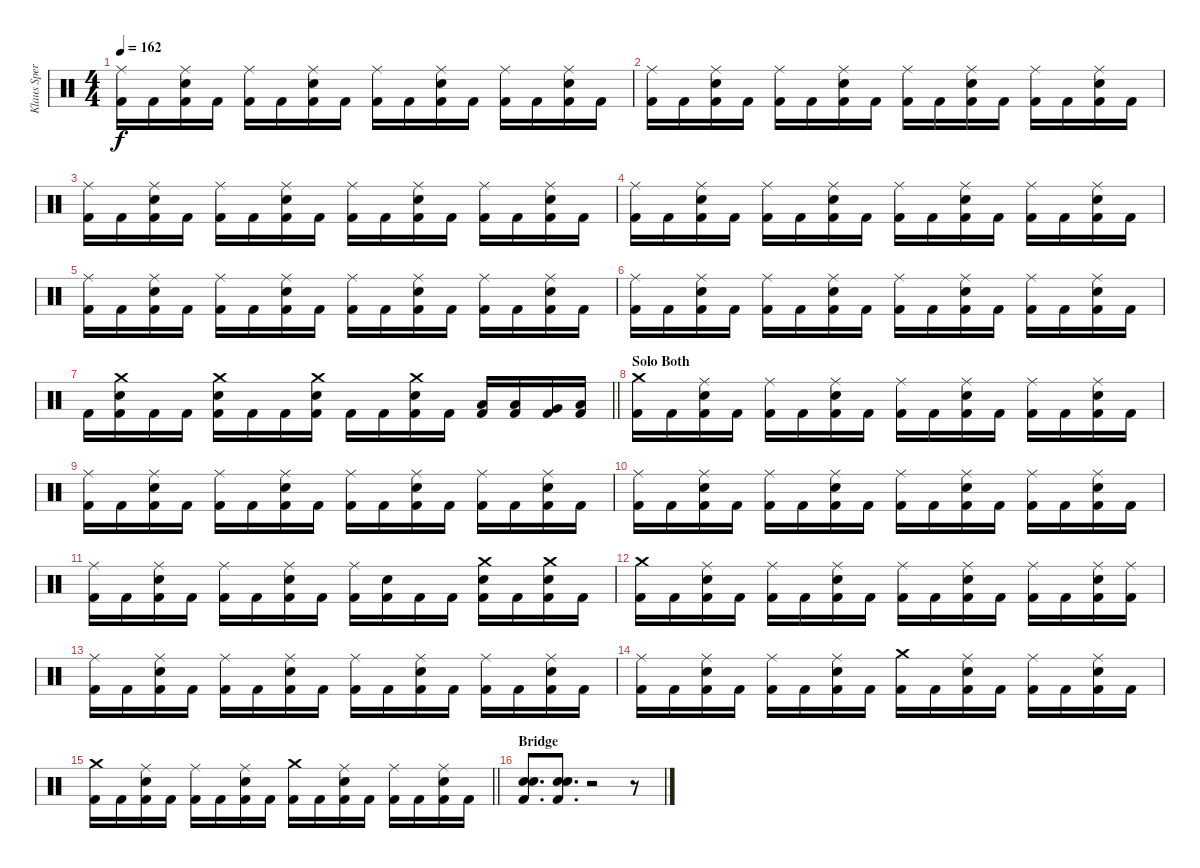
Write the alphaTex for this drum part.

\track ("Klaus Sperling" "Klaus Sper") {instrument percussion}
\staff {score}
\articulation defaults
\ts (4 4)
\tempo 162
\clef neutral
\ks c
("Ride (middle)" "Kick (hit) 2").16{dy f} "Kick (hit) 2".16 ("Ride (middle)" "Electric Snare (hit)" "Kick (hit) 2").16 "Kick (hit) 2".16 ("Ride (middle)" "Kick (hit) 2").16 "Kick (hit) 2".16 ("Ride (middle)" "Electric Snare (hit)" "Kick (hit) 2").16 "Kick (hit) 2".16 ("Ride (middle)" "Kick (hit) 2").16 "Kick (hit) 2".16 ("Ride (middle)" "Electric Snare (hit)" "Kick (hit) 2").16 "Kick (hit) 2".16 ("Ride (middle)" "Kick (hit) 2").16 "Kick (hit) 2".16 ("Ride (middle)" "Electric Snare (hit)" "Kick (hit) 2").16 "Kick (hit) 2".16 |
("Ride (middle)" "Kick (hit) 2").16 "Kick (hit) 2".16 ("Ride (middle)" "Electric Snare (hit)" "Kick (hit) 2").16 "Kick (hit) 2".16 ("Ride (middle)" "Kick (hit) 2").16 "Kick (hit) 2".16 ("Ride (middle)" "Electric Snare (hit)" "Kick (hit) 2").16 "Kick (hit) 2".16 ("Ride (middle)" "Kick (hit) 2").16 "Kick (hit) 2".16 ("Ride (middle)" "Electric Snare (hit)" "Kick (hit) 2").16 "Kick (hit) 2".16 ("Ride (middle)" "Kick (hit) 2").16 "Kick (hit) 2".16 ("Ride (middle)" "Electric Snare (hit)" "Kick (hit) 2").16 "Kick (hit) 2".16 |
("Ride (middle)" "Kick (hit) 2").16 "Kick (hit) 2".16 ("Ride (middle)" "Electric Snare (hit)" "Kick (hit) 2").16 "Kick (hit) 2".16 ("Ride (middle)" "Kick (hit) 2").16 "Kick (hit) 2".16 ("Ride (middle)" "Electric Snare (hit)" "Kick (hit) 2").16 "Kick (hit) 2".16 ("Ride (middle)" "Kick (hit) 2").16 "Kick (hit) 2".16 ("Ride (middle)" "Electric Snare (hit)" "Kick (hit) 2").16 "Kick (hit) 2".16 ("Ride (middle)" "Kick (hit) 2").16 "Kick (hit) 2".16 ("Ride (middle)" "Electric Snare (hit)" "Kick (hit) 2").16 "Kick (hit) 2".16 |
("Ride (middle)" "Kick (hit) 2").16 "Kick (hit) 2".16 ("Ride (middle)" "Electric Snare (hit)" "Kick (hit) 2").16 "Kick (hit) 2".16 ("Ride (middle)" "Kick (hit) 2").16 "Kick (hit) 2".16 ("Ride (middle)" "Electric Snare (hit)" "Kick (hit) 2").16 "Kick (hit) 2".16 ("Ride (middle)" "Kick (hit) 2").16 "Kick (hit) 2".16 ("Ride (middle)" "Electric Snare (hit)" "Kick (hit) 2").16 "Kick (hit) 2".16 ("Ride (middle)" "Kick (hit) 2").16 "Kick (hit) 2".16 ("Ride (middle)" "Electric Snare (hit)" "Kick (hit) 2").16 "Kick (hit) 2".16 |
("Ride (middle)" "Kick (hit) 2").16 "Kick (hit) 2".16 ("Ride (middle)" "Electric Snare (hit)" "Kick (hit) 2").16 "Kick (hit) 2".16 ("Ride (middle)" "Kick (hit) 2").16 "Kick (hit) 2".16 ("Ride (middle)" "Electric Snare (hit)" "Kick (hit) 2").16 "Kick (hit) 2".16 ("Ride (middle)" "Kick (hit) 2").16 "Kick (hit) 2".16 ("Ride (middle)" "Electric Snare (hit)" "Kick (hit) 2").16 "Kick (hit) 2".16 ("Ride (middle)" "Kick (hit) 2").16 "Kick (hit) 2".16 ("Ride (middle)" "Electric Snare (hit)" "Kick (hit) 2").16 "Kick (hit) 2".16 |
("Ride (middle)" "Kick (hit) 2").16 "Kick (hit) 2".16 ("Ride (middle)" "Electric Snare (hit)" "Kick (hit) 2").16 "Kick (hit) 2".16 ("Ride (middle)" "Kick (hit) 2").16 "Kick (hit) 2".16 ("Ride (middle)" "Electric Snare (hit)" "Kick (hit) 2").16 "Kick (hit) 2".16 ("Ride (middle)" "Kick (hit) 2").16 "Kick (hit) 2".16 ("Ride (middle)" "Electric Snare (hit)" "Kick (hit) 2").16 "Kick (hit) 2".16 ("Ride (middle)" "Kick (hit) 2").16 "Kick (hit) 2".16 ("Ride (middle)" "Electric Snare (hit)" "Kick (hit) 2").16 "Kick (hit) 2".16 |
\barLineRight lightlight "Kick (hit) 2".16
("Crash medium (hit)" "Electric Snare (hit)" "Kick (hit) 2").16 "Kick (hit) 2".16 "Kick (hit) 2".16 ("Crash medium (hit)" "Electric Snare (hit)" "Kick (hit) 2").16 "Kick (hit) 2".16 "Kick (hit) 2".16 ("Crash medium (hit)" "Electric Snare (hit)" "Kick (hit) 2").16 "Kick (hit) 2".16 "Kick (hit) 2".16 ("Crash medium (hit)" "Electric Snare (hit)" "Kick (hit) 2").16 "Kick (hit) 2".16 ("Low Tom (hit)" "Kick (hit) 2").16 ("Low Tom (hit)" "Kick (hit) 2").16 ("Very Low Tom (hit)" "Kick (hit) 2").16 ("Low Floor Tom (hit)" "Kick (hit) 2").16 |
\section ("" "Solo Both")
("Crash medium (hit)" "Kick (hit) 2").16 "Kick (hit) 2".16 ("Ride (middle)" "Electric Snare (hit)" "Kick (hit) 2").16 "Kick (hit) 2".16 ("Ride (middle)" "Kick (hit) 2").16 "Kick (hit) 2".16 ("Ride (middle)" "Electric Snare (hit)" "Kick (hit) 2").16 "Kick (hit) 2".16 ("Ride (middle)" "Kick (hit) 2").16 "Kick (hit) 2".16 ("Ride (middle)" "Electric Snare (hit)" "Kick (hit) 2").16 "Kick (hit) 2".16 ("Ride (middle)" "Kick (hit) 2").16 "Kick (hit) 2".16 ("Ride (middle)" "Electric Snare (hit)" "Kick (hit) 2").16 "Kick (hit) 2".16 |
("Ride (middle)" "Kick (hit) 2").16 "Kick (hit) 2".16 ("Ride (middle)" "Electric Snare (hit)" "Kick (hit) 2").16 "Kick (hit) 2".16 ("Ride (middle)" "Kick (hit) 2").16 "Kick (hit) 2".16 ("Ride (middle)" "Electric Snare (hit)" "Kick (hit) 2").16 "Kick (hit) 2".16 ("Ride (middle)" "Kick (hit) 2").16 "Kick (hit) 2".16 ("Ride (middle)" "Electric Snare (hit)" "Kick (hit) 2").16 "Kick (hit) 2".16 ("Ride (middle)" "Kick (hit) 2").16 "Kick (hit) 2".16 ("Ride (middle)" "Electric Snare (hit)" "Kick (hit) 2").16 "Kick (hit) 2".16 |
("Ride (middle)" "Kick (hit) 2").16 "Kick (hit) 2".16 ("Ride (middle)" "Electric Snare (hit)" "Kick (hit) 2").16 "Kick (hit) 2".16 ("Ride (middle)" "Kick (hit) 2").16 "Kick (hit) 2".16 ("Ride (middle)" "Electric Snare (hit)" "Kick (hit) 2").16 "Kick (hit) 2".16 ("Ride (middle)" "Kick (hit) 2").16 "Kick (hit) 2".16 ("Ride (middle)" "Electric Snare (hit)" "Kick (hit) 2").16 "Kick (hit) 2".16 ("Ride (middle)" "Kick (hit) 2").16 "Kick (hit) 2".16 ("Ride (middle)" "Electric Snare (hit)" "Kick (hit) 2").16 "Kick (hit) 2".16 |
("Ride (middle)" "Kick (hit) 2").16 "Kick (hit) 2".16 ("Ride (middle)" "Electric Snare (hit)" "Kick (hit) 2").16 "Kick (hit) 2".16 ("Ride (middle)" "Kick (hit) 2").16 "Kick (hit) 2".16 ("Ride (middle)" "Electric Snare (hit)" "Kick (hit) 2").16 "Kick (hit) 2".16 ("Ride (middle)" "Kick (hit) 2").16 ("Electric Snare (hit)" "Kick (hit) 2").16 "Kick (hit) 2".16 "Kick (hit) 2".16 ("Crash medium (hit)" "Electric Snare (hit)" "Kick (hit) 2").16 "Kick (hit) 2".16 ("Crash medium (hit)" "Electric Snare (hit)" "Kick (hit) 2").16 "Kick (hit) 2".16 |
("Crash medium (hit)" "Kick (hit) 2").16 "Kick (hit) 2".16 ("Ride (middle)" "Electric Snare (hit)" "Kick (hit) 2").16 "Kick (hit) 2".16 ("Ride (middle)" "Kick (hit) 2").16 "Kick (hit) 2".16 ("Ride (middle)" "Electric Snare (hit)" "Kick (hit) 2").16 "Kick (hit) 2".16 ("Ride (middle)" "Kick (hit) 2").16 "Kick (hit) 2".16 ("Ride (middle)" "Electric Snare (hit)" "Kick (hit) 2").16 "Kick (hit) 2".16 ("Ride (middle)" "Kick (hit) 2").16 "Kick (hit) 2".16 ("Ride (middle)" "Electric Snare (hit)" "Kick (hit) 2").16 ("Ride (middle)" "Kick (hit) 2").16 |
("Ride (middle)" "Kick (hit) 2").16 "Kick (hit) 2".16 ("Ride (middle)" "Electric Snare (hit)" "Kick (hit) 2").16 "Kick (hit) 2".16 ("Ride (middle)" "Kick (hit) 2").16 "Kick (hit) 2".16 ("Ride (middle)" "Electric Snare (hit)" "Kick (hit) 2").16 "Kick (hit) 2".16 ("Ride (middle)" "Kick (hit) 2").16 "Kick (hit) 2".16 ("Ride (middle)" "Electric Snare (hit)" "Kick (hit) 2").16 "Kick (hit) 2".16 ("Ride (middle)" "Kick (hit) 2").16 "Kick (hit) 2".16 ("Ride (middle)" "Electric Snare (hit)" "Kick (hit) 2").16 "Kick (hit) 2".16 |
("Ride (middle)" "Kick (hit) 2").16 "Kick (hit) 2".16 ("Ride (middle)" "Electric Snare (hit)" "Kick (hit) 2").16 "Kick (hit) 2".16 ("Ride (middle)" "Kick (hit) 2").16 "Kick (hit) 2".16 ("Ride (middle)" "Electric Snare (hit)" "Kick (hit) 2").16 "Kick (hit) 2".16 ("Crash medium (hit)" "Kick (hit) 2").16 "Kick (hit) 2".16 ("Ride (middle)" "Electric Snare (hit)" "Kick (hit) 2").16 "Kick (hit) 2".16 ("Ride (middle)" "Kick (hit) 2").16 "Kick (hit) 2".16 ("Ride (middle)" "Electric Snare (hit)" "Kick (hit) 2").16 "Kick (hit) 2".16 |
\barLineRight lightlight
("Crash medium (hit)" "Kick (hit) 2").16 "Kick (hit) 2".16 ("Ride (middle)" "Electric Snare (hit)" "Kick (hit) 2").16 "Kick (hit) 2".16 ("Ride (middle)" "Kick (hit) 2").16 "Kick (hit) 2".16 ("Ride (middle)" "Electric Snare (hit)" "Kick (hit) 2").16 "Kick (hit) 2".16 ("Crash medium (hit)" "Kick (hit) 2").16 "Kick (hit) 2".16 ("Ride (middle)" "Electric Snare (hit)" "Kick (hit) 2").16 "Kick (hit) 2".16 ("Ride (middle)" "Kick (hit) 2").16 "Kick (hit) 2".16 ("Ride (middle)" "Electric Snare (hit)" "Kick (hit) 2").16 "Kick (hit) 2".16 |
\section ("" "Bridge")
("Electric Snare (hit)" "Electric Snare (hit)" "Kick (hit) 2").8{d} ("Electric Snare (hit)" "Electric Snare (hit)" "Kick (hit) 2").8{d} r.2 r.8
